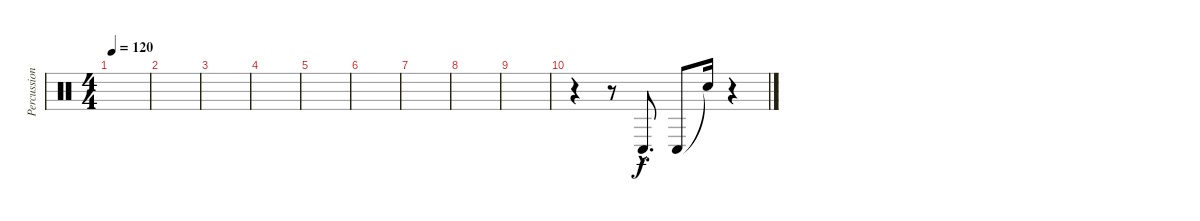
\track ("Percussion" "Percussion") {instrument percussion}
\staff {score}
\articulation defaults
\ts (4 4)
\tempo 120
\clef neutral
\ks c
|
|
|
|
|
|
|
|
|
r.4 r.8 "Conga low (hit)"{hac}.8{d} "Conga low (hit)".8 "Snare (hit)"{t}.16 r.4
